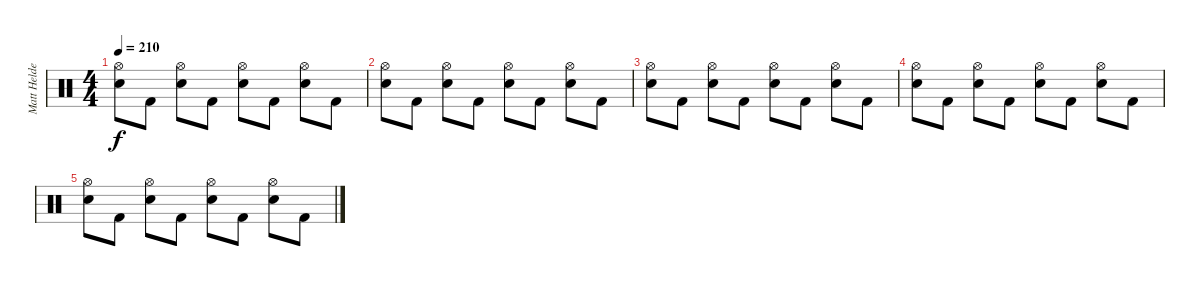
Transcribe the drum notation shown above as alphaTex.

\track ("Matt Helders" "Matt Helde") {instrument percussion}
\staff {score}
\articulation defaults
\ts (4 4)
\tempo 210
\clef neutral
\ks c
("Hi-Hat (open)" "Snare (hit) 2").8{dy f} "Kick (hit) 2".8 ("Hi-Hat (open)" "Snare (hit) 2").8 "Kick (hit) 2".8 ("Hi-Hat (open)" "Snare (hit) 2").8 "Kick (hit) 2".8 ("Hi-Hat (open)" "Snare (hit) 2").8 "Kick (hit) 2".8 |
("Hi-Hat (open)" "Snare (hit) 2").8 "Kick (hit) 2".8 ("Hi-Hat (open)" "Snare (hit) 2").8 "Kick (hit) 2".8 ("Hi-Hat (open)" "Snare (hit) 2").8 "Kick (hit) 2".8 ("Hi-Hat (open)" "Snare (hit) 2").8 "Kick (hit) 2".8 |
("Hi-Hat (open)" "Snare (hit) 2").8 "Kick (hit) 2".8 ("Hi-Hat (open)" "Snare (hit) 2").8 "Kick (hit) 2".8 ("Hi-Hat (open)" "Snare (hit) 2").8 "Kick (hit) 2".8 ("Hi-Hat (open)" "Snare (hit) 2").8 "Kick (hit) 2".8 |
("Hi-Hat (open)" "Snare (hit) 2").8 "Kick (hit) 2".8 ("Hi-Hat (open)" "Snare (hit) 2").8 "Kick (hit) 2".8 ("Hi-Hat (open)" "Snare (hit) 2").8 "Kick (hit) 2".8 ("Hi-Hat (open)" "Snare (hit) 2").8 "Kick (hit) 2".8 |
("Hi-Hat (open)" "Snare (hit) 2").8 "Kick (hit) 2".8 ("Hi-Hat (open)" "Snare (hit) 2").8 "Kick (hit) 2".8 ("Hi-Hat (open)" "Snare (hit) 2").8 "Kick (hit) 2".8 ("Hi-Hat (open)" "Snare (hit) 2").8 "Kick (hit) 2".8
